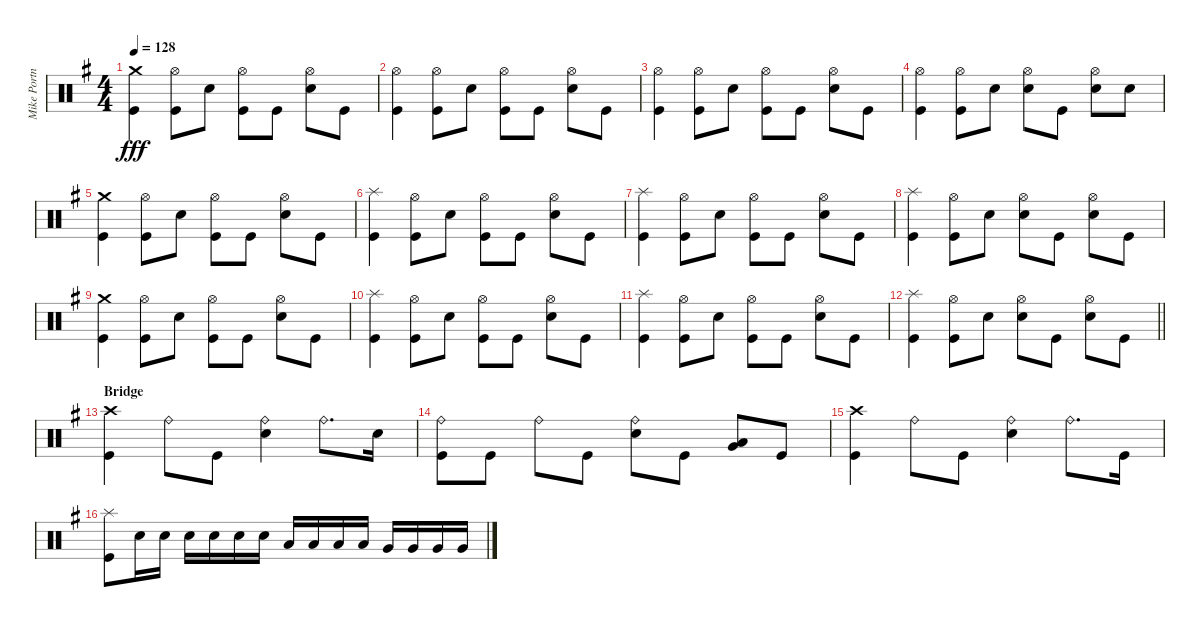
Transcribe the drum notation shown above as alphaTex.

\track ("Mike Portnoy" "Mike Portn") {instrument percussion}
\staff {score}
\articulation defaults
\ts (4 4)
\tempo 128
\clef neutral
\ks eminor
("Kick (hit)" "Crash medium (hit)").4{dy fff} ("Kick (hit)" "Hi-Hat (open)").8 "Snare (hit) 2".8 ("Kick (hit)" "Hi-Hat (open)").8 "Kick (hit)".8 ("Snare (hit) 2" "Hi-Hat (open)").8 "Kick (hit)".8 |
("Kick (hit)" "Hi-Hat (open)").4 ("Kick (hit)" "Hi-Hat (open)").8 "Snare (hit) 2".8 ("Kick (hit)" "Hi-Hat (open)").8 "Kick (hit)".8 ("Snare (hit) 2" "Hi-Hat (open)").8 "Kick (hit)".8 |
("Kick (hit)" "Hi-Hat (open)").4 ("Kick (hit)" "Hi-Hat (open)").8 "Snare (hit) 2".8 ("Kick (hit)" "Hi-Hat (open)").8 "Kick (hit)".8 ("Snare (hit) 2" "Hi-Hat (open)").8 "Kick (hit)".8 |
("Kick (hit)" "Hi-Hat (open)").4 ("Kick (hit)" "Hi-Hat (open)").8 "Snare (hit) 2".8 ("Snare (hit) 2" "Hi-Hat (open)").8 "Kick (hit)".8 ("Snare (hit) 2" "Hi-Hat (open)").8 "Snare (hit) 2".8 |
("Kick (hit)" "Crash medium (hit)").4 ("Kick (hit)" "Hi-Hat (open)").8 "Snare (hit) 2".8 ("Kick (hit)" "Hi-Hat (open)").8 "Kick (hit)".8 ("Snare (hit) 2" "Hi-Hat (open)").8 "Kick (hit)".8 |
("Kick (hit)" "Splash (hit)").4 ("Kick (hit)" "Hi-Hat (open)").8 "Snare (hit) 2".8 ("Kick (hit)" "Hi-Hat (open)").8 "Kick (hit)".8 ("Snare (hit) 2" "Hi-Hat (open)").8 "Kick (hit)".8 |
("Kick (hit)" "Splash (hit)").4 ("Kick (hit)" "Hi-Hat (open)").8 "Snare (hit) 2".8 ("Kick (hit)" "Hi-Hat (open)").8 "Kick (hit)".8 ("Snare (hit) 2" "Hi-Hat (open)").8 "Kick (hit)".8 |
("Kick (hit)" "Splash (hit)").4 ("Kick (hit)" "Hi-Hat (open)").8 "Snare (hit) 2".8 ("Snare (hit) 2" "Hi-Hat (open)").8 "Kick (hit)".8 ("Snare (hit) 2" "Hi-Hat (open)").8 "Kick (hit)".8 |
("Kick (hit)" "Crash medium (hit)").4 ("Kick (hit)" "Hi-Hat (open)").8 "Snare (hit) 2".8 ("Kick (hit)" "Hi-Hat (open)").8 "Kick (hit)".8 ("Snare (hit) 2" "Hi-Hat (open)").8 "Kick (hit)".8 |
("Kick (hit)" "Splash (hit)").4 ("Kick (hit)" "Hi-Hat (open)").8 "Snare (hit) 2".8 ("Kick (hit)" "Hi-Hat (open)").8 "Kick (hit)".8 ("Snare (hit) 2" "Hi-Hat (open)").8 "Kick (hit)".8 |
("Kick (hit)" "Splash (hit)").4 ("Kick (hit)" "Hi-Hat (open)").8 "Snare (hit) 2".8 ("Kick (hit)" "Hi-Hat (open)").8 "Kick (hit)".8 ("Snare (hit) 2" "Hi-Hat (open)").8 "Kick (hit)".8 |
\barLineRight lightlight
("Kick (hit)" "Splash (hit)").4 ("Kick (hit)" "Hi-Hat (open)").8 "Snare (hit) 2".8 ("Snare (hit) 2" "Hi-Hat (open)").8 "Kick (hit)".8 ("Snare (hit) 2" "Hi-Hat (open)").8 "Kick (hit)".8 |
\section ("" "Bridge")
("Kick (hit)" "Crash high (hit)").4 "Ride (bell)".8 "Kick (hit)".8 ("Snare (hit) 2" "Ride (bell)").4 "Ride (bell)".8{d} "Snare (hit) 2".16 |
("Kick (hit)" "Ride (bell)").8 "Kick (hit)".8 "Ride (bell)".8 "Kick (hit)".8 ("Snare (hit) 2" "Ride (bell)").8 "Kick (hit)".8 ("Low Tom (hit)" "Very Low Tom (hit)").8 "Kick (hit)".8 |
("Crash high (hit)" "Kick (hit)").4 "Ride (bell)".8 "Kick (hit)".8 ("Snare (hit) 2" "Ride (bell)").4 "Ride (bell)".8{d} "Kick (hit)".16 |
("Kick (hit)" "Splash (hit)").8 "Snare (hit) 2".16 "Snare (hit) 2".16 "Snare (hit) 2".16 "Snare (hit) 2".16 "Snare (hit) 2".16 "Snare (hit) 2".16 "Low Tom (hit)".16 "Low Tom (hit)".16 "Low Tom (hit)".16 "Low Tom (hit)".16 "Very Low Tom (hit)".16 "Very Low Tom (hit)".16 "Very Low Tom (hit)".16 "Very Low Tom (hit)".16
